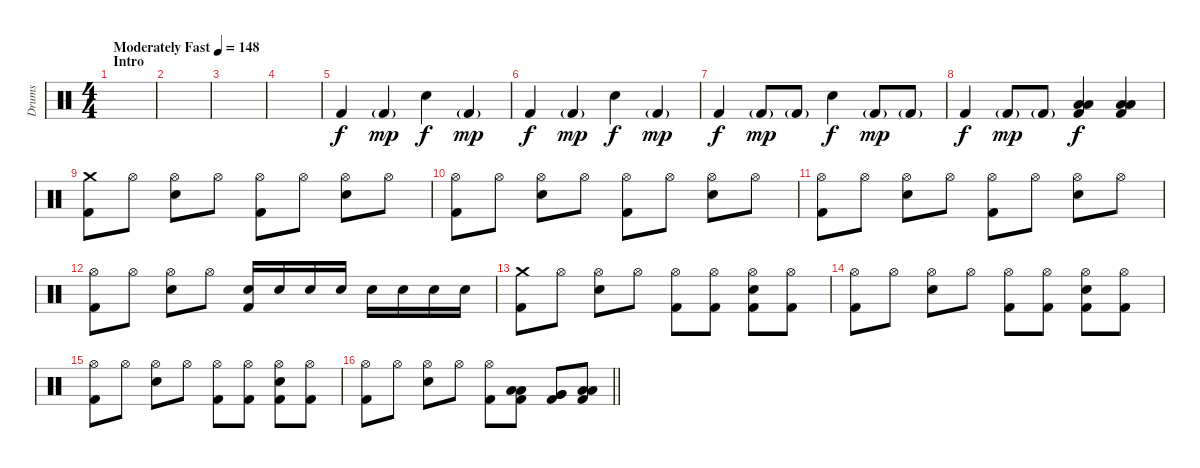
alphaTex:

\track ("Drums" "Drums") {instrument percussion}
\staff {score}
\articulation defaults
\ts (4 4)
\section ("" "Intro")
\tempo (148 "Moderately Fast")
\clef neutral
\ks c
|
|
|
|
"Kick (hit) 2".4 "Kick (hit) 2"{g}.4{dy mp} "Snare (hit) 2".4{dy f} "Kick (hit) 2"{g}.4{dy mp} |
"Kick (hit) 2".4{dy f} "Kick (hit) 2"{g}.4{dy mp} "Snare (hit) 2".4{dy f} "Kick (hit) 2"{g}.4{dy mp} |
"Kick (hit) 2".4{dy f} "Kick (hit) 2"{g}.8{dy mp} "Kick (hit) 2"{g}.8 "Snare (hit) 2".4{dy f} "Kick (hit) 2"{g}.8{dy mp} "Kick (hit) 2"{g}.8 |
"Kick (hit) 2".4{dy f} "Kick (hit) 2"{g}.8{dy mp} "Kick (hit) 2"{g}.8 ("Low Floor Tom (hit)" "Low Floor Tom (hit)" "Kick (hit) 2").4{dy f} ("Low Floor Tom (hit)" "Low Floor Tom (hit)" "Kick (hit) 2").4 |
("Crash medium (hit)" "Kick (hit) 2").8 "Hi-Hat (open)".8 ("Hi-Hat (open)" "Snare (hit) 2").8 "Hi-Hat (open)".8 ("Hi-Hat (open)" "Kick (hit) 2").8 "Hi-Hat (open)".8 ("Hi-Hat (open)" "Snare (hit) 2").8 "Hi-Hat (open)".8 |
("Hi-Hat (open)" "Kick (hit) 2").8 "Hi-Hat (open)".8 ("Hi-Hat (open)" "Snare (hit) 2").8 "Hi-Hat (open)".8 ("Hi-Hat (open)" "Kick (hit) 2").8 "Hi-Hat (open)".8 ("Hi-Hat (open)" "Snare (hit) 2").8 "Hi-Hat (open)".8 |
("Hi-Hat (open)" "Kick (hit) 2").8 "Hi-Hat (open)".8 ("Hi-Hat (open)" "Snare (hit) 2").8 "Hi-Hat (open)".8 ("Hi-Hat (open)" "Kick (hit) 2").8 "Hi-Hat (open)".8 ("Hi-Hat (open)" "Snare (hit) 2").8 "Hi-Hat (open)".8 |
("Hi-Hat (open)" "Kick (hit) 2").8 "Hi-Hat (open)".8 ("Hi-Hat (open)" "Snare (hit) 2").8 "Hi-Hat (open)".8 ("Snare (hit) 2" "Kick (hit) 2").16 "Snare (hit) 2".16 "Snare (hit) 2".16 "Snare (hit) 2".16 "Snare (hit) 2".16 "Snare (hit) 2".16 "Snare (hit) 2".16 "Snare (hit) 2".16 |
("Crash medium (hit)" "Kick (hit) 2").8 "Hi-Hat (open)".8 ("Hi-Hat (open)" "Snare (hit) 2").8 "Hi-Hat (open)".8 ("Hi-Hat (open)" "Kick (hit) 2").8 ("Hi-Hat (open)" "Kick (hit) 2").8 ("Hi-Hat (open)" "Snare (hit) 2" "Kick (hit) 2").8 ("Hi-Hat (open)" "Kick (hit) 2").8 |
("Hi-Hat (open)" "Kick (hit) 2").8 "Hi-Hat (open)".8 ("Hi-Hat (open)" "Snare (hit) 2").8 "Hi-Hat (open)".8 ("Hi-Hat (open)" "Kick (hit) 2").8 ("Hi-Hat (open)" "Kick (hit) 2").8 ("Hi-Hat (open)" "Snare (hit) 2" "Kick (hit) 2").8 ("Hi-Hat (open)" "Kick (hit) 2").8 |
("Hi-Hat (open)" "Kick (hit) 2").8 "Hi-Hat (open)".8 ("Hi-Hat (open)" "Snare (hit) 2").8 "Hi-Hat (open)".8 ("Hi-Hat (open)" "Kick (hit) 2").8 ("Hi-Hat (open)" "Kick (hit) 2").8 ("Hi-Hat (open)" "Snare (hit) 2" "Kick (hit) 2").8 ("Hi-Hat (open)" "Kick (hit) 2").8 |
\barLineRight lightlight
("Hi-Hat (open)" "Kick (hit) 2").8 "Hi-Hat (open)".8 ("Hi-Hat (open)" "Snare (hit) 2").8 "Hi-Hat (open)".8 ("Hi-Hat (open)" "Kick (hit) 2").8 ("Low Tom (hit)" "Low Tom (hit)" "Kick (hit) 2").8 ("Very Low Tom (hit)" "Very Low Tom (hit)" "Kick (hit) 2").8 ("Low Floor Tom (hit)" "Low Floor Tom (hit)" "Kick (hit) 2").8
